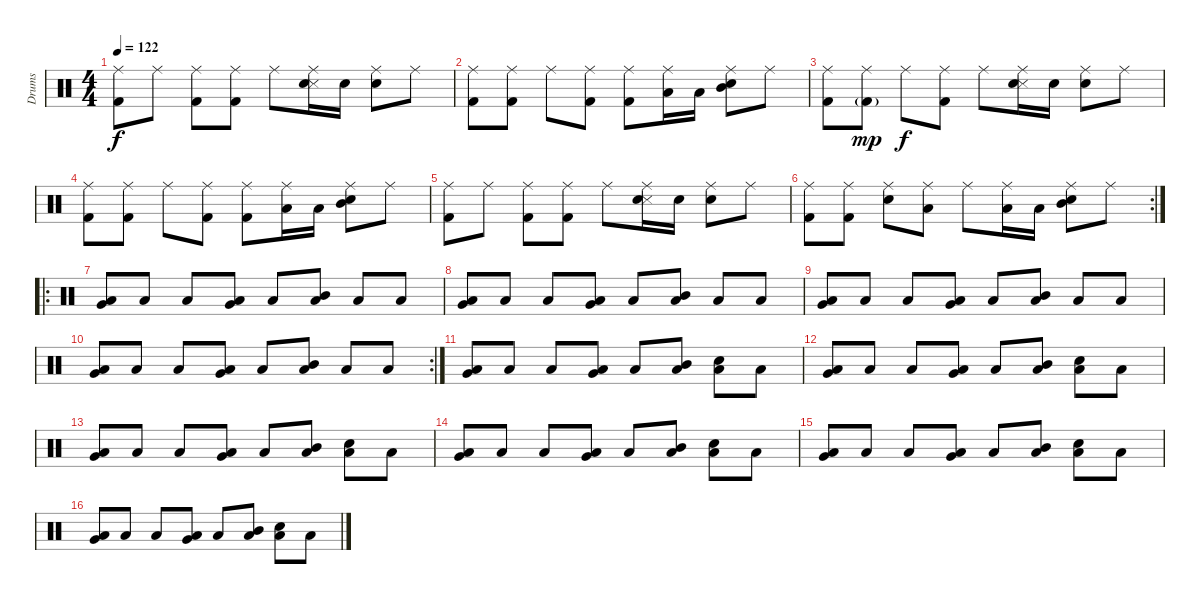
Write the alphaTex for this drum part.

\track ("Drums" "Drums") {instrument percussion}
\staff {score}
\articulation defaults
\ts (4 4)
\tempo 122
\clef neutral
\ks c
("Ride (middle)" "Kick (hit) 2").8{dy f} "Ride (middle)".8 ("Ride (middle)" "Kick (hit) 2").8 ("Ride (middle)" "Kick (hit) 2").8 "Ride (middle)".8 ("Ride (middle)" "Snare (side stick) 3" "Snare (hit) 2").16 "Snare (hit) 2".16 ("Ride (middle)" "Snare (hit) 2").8 "Ride (middle)".8 |
("Ride (middle)" "Kick (hit) 2").8 ("Ride (middle)" "Kick (hit) 2").8 "Ride (middle)".8 ("Ride (middle)" "Kick (hit) 2").8 ("Ride (middle)" "Kick (hit) 2").8 ("Ride (middle)" "Low Tom (hit)").16 "Low Tom (hit)".16 ("Ride (middle)" "Mid Tom (hit)" "Snare (hit) 2").8 "Ride (middle)".8 |
("Ride (middle)" "Kick (hit) 2").8 ("Ride (middle)" "Kick (hit) 2"{g}).8{dy mp} "Ride (middle)".8{dy f} ("Ride (middle)" "Kick (hit) 2").8 "Ride (middle)".8 ("Ride (middle)" "Snare (side stick) 3" "Snare (hit) 2").16 "Snare (hit) 2".16 ("Ride (middle)" "Snare (hit) 2").8 "Ride (middle)".8 |
("Ride (middle)" "Kick (hit) 2").8 ("Ride (middle)" "Kick (hit) 2").8 "Ride (middle)".8 ("Ride (middle)" "Kick (hit) 2").8 ("Ride (middle)" "Kick (hit) 2").8 ("Ride (middle)" "Low Tom (hit)").16 "Low Tom (hit)".16 ("Ride (middle)" "Mid Tom (hit)" "Snare (hit) 2").8 "Ride (middle)".8 |
("Ride (middle)" "Kick (hit) 2").8 "Ride (middle)".8 ("Ride (middle)" "Kick (hit) 2").8 ("Ride (middle)" "Kick (hit) 2").8 "Ride (middle)".8 ("Ride (middle)" "Snare (side stick) 3" "Snare (hit) 2").16 "Snare (hit) 2".16 ("Ride (middle)" "Snare (hit) 2").8 "Ride (middle)".8 |
\rc 2
("Ride (middle)" "Kick (hit) 2").8 ("Ride (middle)" "Kick (hit) 2").8 ("Ride (middle)" "Snare (hit) 2").8 ("Ride (middle)" "Low Tom (hit)").8 "Ride (middle)".8 ("Ride (middle)" "Low Tom (hit)").16 "Low Tom (hit)".16 ("Ride (middle)" "Mid Tom (hit)" "Snare (hit) 2").8 "Ride (middle)".8 |
\ro
("Very Low Tom (hit)" "Low Floor Tom (hit)").8 "Low Floor Tom (hit)".8 "Low Floor Tom (hit)".8 ("Very Low Tom (hit)" "Low Floor Tom (hit)").8 "Low Floor Tom (hit)".8 ("Mid Tom (hit)" "Low Floor Tom (hit)").8 "Low Floor Tom (hit)".8 "Low Floor Tom (hit)".8 |
("Very Low Tom (hit)" "Low Floor Tom (hit)").8 "Low Floor Tom (hit)".8 "Low Floor Tom (hit)".8 ("Very Low Tom (hit)" "Low Floor Tom (hit)").8 "Low Floor Tom (hit)".8 ("Mid Tom (hit)" "Low Floor Tom (hit)").8 "Low Floor Tom (hit)".8 "Low Floor Tom (hit)".8 |
("Very Low Tom (hit)" "Low Floor Tom (hit)").8 "Low Floor Tom (hit)".8 "Low Floor Tom (hit)".8 ("Very Low Tom (hit)" "Low Floor Tom (hit)").8 "Low Floor Tom (hit)".8 ("Mid Tom (hit)" "Low Floor Tom (hit)").8 "Low Floor Tom (hit)".8 "Low Floor Tom (hit)".8 |
\rc 2
("Very Low Tom (hit)" "Low Floor Tom (hit)").8 "Low Floor Tom (hit)".8 "Low Floor Tom (hit)".8 ("Very Low Tom (hit)" "Low Floor Tom (hit)").8 "Low Floor Tom (hit)".8 ("Mid Tom (hit)" "Low Floor Tom (hit)").8 "Low Floor Tom (hit)".8 "Low Floor Tom (hit)".8 |
("Very Low Tom (hit)" "Low Floor Tom (hit)").8 "Low Floor Tom (hit)".8 "Low Floor Tom (hit)".8 ("Very Low Tom (hit)" "Low Floor Tom (hit)").8 "Low Floor Tom (hit)".8 ("Mid Tom (hit)" "Low Floor Tom (hit)").8 ("Snare (hit) 2" "Low Floor Tom (hit)").8 "Low Floor Tom (hit)".8 |
("Very Low Tom (hit)" "Low Floor Tom (hit)").8 "Low Floor Tom (hit)".8 "Low Floor Tom (hit)".8 ("Very Low Tom (hit)" "Low Floor Tom (hit)").8 "Low Floor Tom (hit)".8 ("Mid Tom (hit)" "Low Floor Tom (hit)").8 ("Snare (hit) 2" "Low Floor Tom (hit)").8 "Low Floor Tom (hit)".8 |
("Very Low Tom (hit)" "Low Floor Tom (hit)").8 "Low Floor Tom (hit)".8 "Low Floor Tom (hit)".8 ("Very Low Tom (hit)" "Low Floor Tom (hit)").8 "Low Floor Tom (hit)".8 ("Mid Tom (hit)" "Low Floor Tom (hit)").8 ("Snare (hit) 2" "Low Floor Tom (hit)").8 "Low Floor Tom (hit)".8 |
("Very Low Tom (hit)" "Low Floor Tom (hit)").8 "Low Floor Tom (hit)".8 "Low Floor Tom (hit)".8 ("Very Low Tom (hit)" "Low Floor Tom (hit)").8 "Low Floor Tom (hit)".8 ("Mid Tom (hit)" "Low Floor Tom (hit)").8 ("Snare (hit) 2" "Low Floor Tom (hit)").8 "Low Floor Tom (hit)".8 |
("Very Low Tom (hit)" "Low Floor Tom (hit)").8 "Low Floor Tom (hit)".8 "Low Floor Tom (hit)".8 ("Very Low Tom (hit)" "Low Floor Tom (hit)").8 "Low Floor Tom (hit)".8 ("Mid Tom (hit)" "Low Floor Tom (hit)").8 ("Snare (hit) 2" "Low Floor Tom (hit)").8 "Low Floor Tom (hit)".8 |
("Very Low Tom (hit)" "Low Floor Tom (hit)").8 "Low Floor Tom (hit)".8 "Low Floor Tom (hit)".8 ("Very Low Tom (hit)" "Low Floor Tom (hit)").8 "Low Floor Tom (hit)".8 ("Mid Tom (hit)" "Low Floor Tom (hit)").8 ("Snare (hit) 2" "Low Floor Tom (hit)").8 "Low Floor Tom (hit)".8
